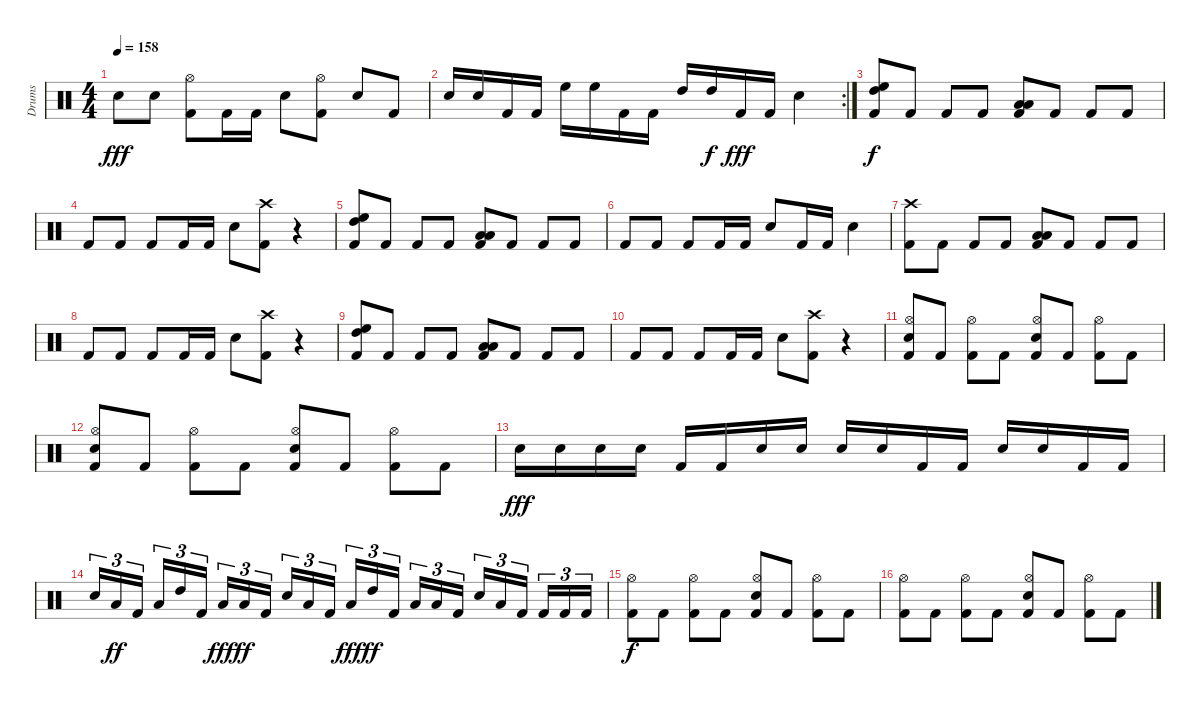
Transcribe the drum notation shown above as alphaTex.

\track ("Drums" "Drums") {instrument percussion}
\staff {score}
\articulation defaults
\ts (4 4)
\tempo 158
\clef neutral
\ks c "Snare (hit) 2".8{dy fff} "Snare (hit) 2".8
("Hi-Hat (open)" "Kick (hit) 2").8 "Kick (hit) 2".16 "Kick (hit) 2".16 "Snare (hit) 2".8 ("Hi-Hat (open)" "Kick (hit) 2").8 "Snare (hit) 2".8 "Kick (hit) 2".8 |
\rc 2 "Snare (hit) 2".16 "Snare (hit) 2".16 "Kick (hit) 2".16 "Kick (hit) 2".16 "High Floor Tom (hit)".16 "High Floor Tom (hit)".16 "Kick (hit) 2".16 "Kick (hit) 2".16 "High Tom (hit)".16 "High Tom (hit)".16{dy f} "Kick (hit) 2".16{dy fff} "Kick (hit) 2".16 "Snare (hit) 2".4
|
("High Tom (hit)" "High Floor Tom (hit)" "Kick (hit) 2").8{dy f} "Kick (hit) 2".8 "Kick (hit) 2".8 "Kick (hit) 2".8 ("Low Tom (hit)" "Low Tom (hit)" "Kick (hit) 2").8 "Kick (hit) 2".8 "Kick (hit) 2".8 "Kick (hit) 2".8 |
"Kick (hit) 2".8 "Kick (hit) 2".8 "Kick (hit) 2".8 "Kick (hit) 2".16 "Kick (hit) 2".16 "Snare (hit) 2".8 ("Crash high (hit)" "Kick (hit) 2").8 r.4 |
("High Tom (hit)" "High Floor Tom (hit)" "Kick (hit) 2").8 "Kick (hit) 2".8 "Kick (hit) 2".8 "Kick (hit) 2".8 ("Low Tom (hit)" "Low Tom (hit)" "Kick (hit) 2").8 "Kick (hit) 2".8 "Kick (hit) 2".8 "Kick (hit) 2".8 |
"Kick (hit) 2".8 "Kick (hit) 2".8 "Kick (hit) 2".8 "Kick (hit) 2".16 "Kick (hit) 2".16 "Snare (hit) 2".8 "Kick (hit) 2".16 "Kick (hit) 2".16 "Snare (hit) 2".4 |
("Crash high (hit)" "Kick (hit) 2").8 "Kick (hit) 2".8 "Kick (hit) 2".8 "Kick (hit) 2".8 ("Low Tom (hit)" "Low Tom (hit)" "Kick (hit) 2").8 "Kick (hit) 2".8 "Kick (hit) 2".8 "Kick (hit) 2".8 |
"Kick (hit) 2".8 "Kick (hit) 2".8 "Kick (hit) 2".8 "Kick (hit) 2".16 "Kick (hit) 2".16 "Snare (hit) 2".8 ("Crash high (hit)" "Kick (hit) 2").8 r.4 |
("High Tom (hit)" "High Floor Tom (hit)" "Kick (hit) 2").8 "Kick (hit) 2".8 "Kick (hit) 2".8 "Kick (hit) 2".8 ("Low Tom (hit)" "Low Tom (hit)" "Kick (hit) 2").8 "Kick (hit) 2".8 "Kick (hit) 2".8 "Kick (hit) 2".8 |
"Kick (hit) 2".8 "Kick (hit) 2".8 "Kick (hit) 2".8 "Kick (hit) 2".16 "Kick (hit) 2".16 "Snare (hit) 2".8 ("Crash high (hit)" "Kick (hit) 2").8 r.4 |
("Hi-Hat (open)" "Snare (hit) 2" "Kick (hit) 2").8 "Kick (hit) 2".8 ("Hi-Hat (open)" "Kick (hit) 2").8 "Kick (hit) 2".8 ("Hi-Hat (open)" "Snare (hit) 2" "Kick (hit) 2").8 "Kick (hit) 2".8 ("Hi-Hat (open)" "Kick (hit) 2").8 "Kick (hit) 2".8 |
("Hi-Hat (open)" "Snare (hit) 2" "Kick (hit) 2").8 "Kick (hit) 2".8 ("Hi-Hat (open)" "Kick (hit) 2").8 "Kick (hit) 2".8 ("Hi-Hat (open)" "Snare (hit) 2" "Kick (hit) 2").8 "Kick (hit) 2".8 ("Hi-Hat (open)" "Kick (hit) 2").8 "Kick (hit) 2".8 |
"Snare (hit) 2".16{dy fff} "Snare (hit) 2".16 "Snare (hit) 2".16 "Snare (hit) 2".16 "Kick (hit) 2".16 "Kick (hit) 2".16 "Snare (hit) 2".16 "Snare (hit) 2".16 "Snare (hit) 2".16 "Snare (hit) 2".16 "Kick (hit) 2".16 "Kick (hit) 2".16 "Snare (hit) 2".16 "Snare (hit) 2".16 "Kick (hit) 2".16 "Kick (hit) 2".16 |
"Snare (hit) 2".16{tu (3 2)} "Low Tom (hit)".16{tu (3 2) dy ff} "Kick (hit) 2".16{tu (3 2)} "Low Tom (hit)".16{tu (3 2)} "High Tom (hit)".16{tu (3 2)} "Kick (hit) 2".16{tu (3 2)} "Low Tom (hit)".16{tu (3 2) dy fff} "Low Tom (hit)".16{tu (3 2) dy ff} "Kick (hit) 2".16{tu (3 2)} "Snare (hit) 2".16{tu (3 2)} "Low Tom (hit)".16{tu (3 2)} "Kick (hit) 2".16{tu (3 2)} "Low Tom (hit)".16{tu (3 2) dy fff} "High Tom (hit)".16{tu (3 2) dy ff} "Kick (hit) 2".16{tu (3 2)} "Low Tom (hit)".16{tu (3 2)} "Low Tom (hit)".16{tu (3 2)} "Kick (hit) 2".16{tu (3 2)} "Snare (hit) 2".16{tu (3 2)} "Low Tom (hit)".16{tu (3 2)} "Kick (hit) 2".16{tu (3 2)} "Kick (hit) 2".16{tu (3 2)} "Kick (hit) 2".16{tu (3 2)} "Kick (hit) 2".16{tu (3 2)} |
("Hi-Hat (open)" "Kick (hit) 2").8{dy f} "Kick (hit) 2".8 ("Hi-Hat (open)" "Kick (hit) 2").8 "Kick (hit) 2".8 ("Hi-Hat (open)" "Snare (hit) 2" "Kick (hit) 2").8 "Kick (hit) 2".8 ("Hi-Hat (open)" "Kick (hit) 2").8 "Kick (hit) 2".8 |
("Hi-Hat (open)" "Kick (hit) 2").8 "Kick (hit) 2".8 ("Hi-Hat (open)" "Kick (hit) 2").8 "Kick (hit) 2".8 ("Hi-Hat (open)" "Snare (hit) 2" "Kick (hit) 2").8 "Kick (hit) 2".8 ("Hi-Hat (open)" "Kick (hit) 2").8 "Kick (hit) 2".8
